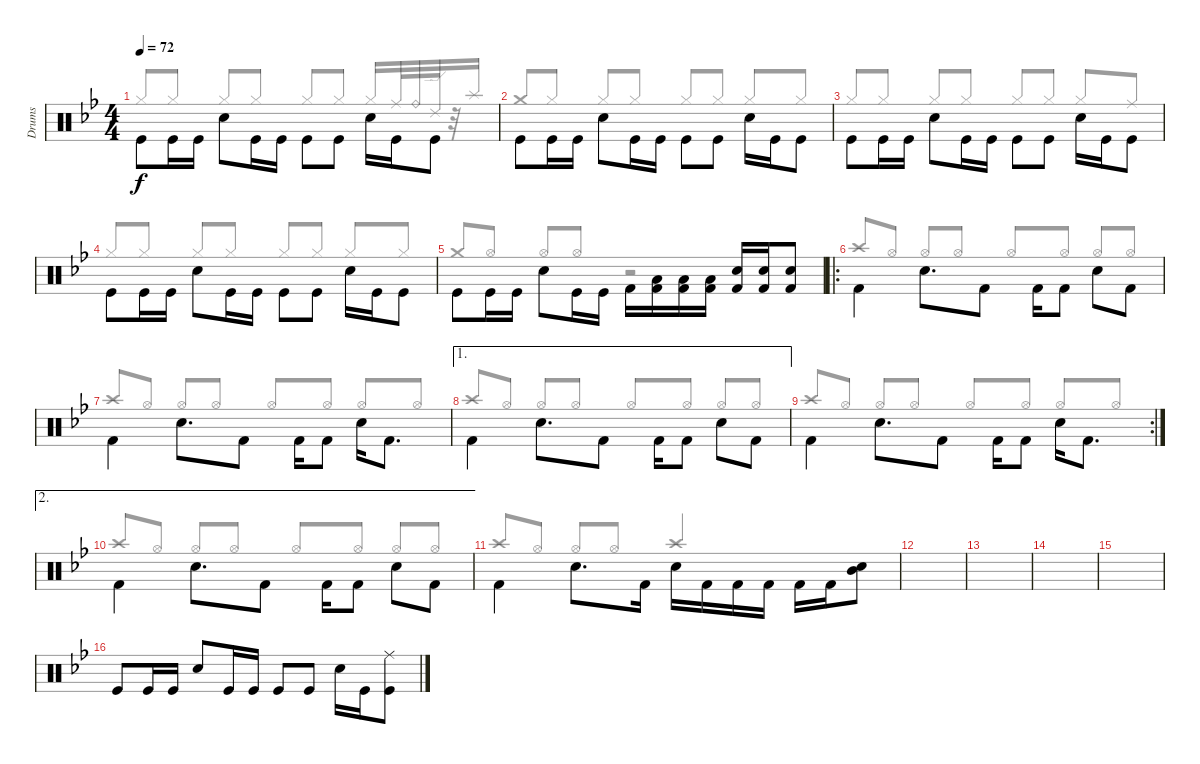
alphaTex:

\track ("Drums" "Drums") {instrument percussion}
\staff {score}
\articulation defaults
\voice
\ts (4 4)
\tempo 72
\clef neutral
\ks gminor "Kick (hit)".8{dy f beam Down} "Kick (hit)".16{beam Down} "Kick (hit)".16{beam Down} "Snare (hit) 2".8{beam Down} "Kick (hit)".16{beam Down} "Kick (hit)".16{beam Down} "Kick (hit)".8{beam Down} "Kick (hit)".8{beam Down} "Snare (hit) 2".16{beam Down} "Kick (hit)".16{beam Down} "Kick (hit)".8{beam Down}
|
"Kick (hit)".8{beam Down} "Kick (hit)".16{beam Down} "Kick (hit)".16{beam Down} "Snare (hit) 2".8{beam Down} "Kick (hit)".16{beam Down} "Kick (hit)".16{beam Down} "Kick (hit)".8{beam Down} "Kick (hit)".8{beam Down} "Snare (hit) 2".16{beam Down} "Kick (hit)".16{beam Down} "Kick (hit)".8{beam Down} |
"Kick (hit)".8{beam Down} "Kick (hit)".16{beam Down} "Kick (hit)".16{beam Down} "Snare (hit) 2".8{beam Down} "Kick (hit)".16{beam Down} "Kick (hit)".16{beam Down} "Kick (hit)".8{beam Down} "Kick (hit)".8{beam Down} "Snare (hit) 2".16{beam Down} "Kick (hit)".16{beam Down} "Kick (hit)".8{beam Down} |
"Kick (hit)".8{beam Down} "Kick (hit)".16{beam Down} "Kick (hit)".16{beam Down} "Snare (hit) 2".8{beam Down} "Kick (hit)".16{beam Down} "Kick (hit)".16{beam Down} "Kick (hit)".8{beam Down} "Kick (hit)".8{beam Down} "Snare (hit) 2".16{beam Down} "Kick (hit)".16{beam Down} "Kick (hit)".8{beam Down} |
"Kick (hit)".8{beam Down} "Kick (hit)".16{beam Down} "Kick (hit)".16{beam Down} "Snare (hit) 2".8{beam Down} "Kick (hit)".16{beam Down} "Kick (hit)".16{beam Down} "Kick (hit) 2".16{beam Down} ("Low Floor Tom (hit)" "Kick (hit) 2").16{beam Down} ("Low Tom (hit)" "Kick (hit) 2").16{beam Down} ("Low Tom (hit)" "Kick (hit) 2").16{beam Down} ("Snare (hit) 2" "Kick (hit) 2").16 ("Snare (hit) 2" "Kick (hit) 2").16 ("Snare (hit) 2" "Kick (hit) 2").8 |
\ro "Kick (hit) 2".4{beam Down} "Electric Snare (hit)".8{d beam Down} "Kick (hit) 2".8{beam Down} "Kick (hit) 2".16{beam Down} "Kick (hit) 2".8{beam Down} "Electric Snare (hit)".8{beam Down} "Kick (hit) 2".8{beam Down}
|
"Kick (hit) 2".4{beam Down} "Electric Snare (hit)".8{d beam Down} "Kick (hit) 2".8{beam Down} "Kick (hit) 2".16{beam Down} "Kick (hit) 2".8{beam Down} "Electric Snare (hit)".16{beam Down} "Kick (hit) 2".8{d beam Down} |
\ae 1 "Kick (hit) 2".4{beam Down} "Electric Snare (hit)".8{d beam Down} "Kick (hit) 2".8{beam Down} "Kick (hit) 2".16{beam Down} "Kick (hit) 2".8{beam Down} "Electric Snare (hit)".8{beam Down} "Kick (hit) 2".8{beam Down}
|
\rc 2 "Kick (hit) 2".4{beam Down} "Electric Snare (hit)".8{d beam Down} "Kick (hit) 2".8{beam Down} "Kick (hit) 2".16{beam Down} "Kick (hit) 2".8{beam Down} "Electric Snare (hit)".16{beam Down} "Kick (hit) 2".8{d beam Down}
|
\ae 2 "Kick (hit) 2".4{beam Down} "Electric Snare (hit)".8{d beam Down} "Kick (hit) 2".8{beam Down} "Kick (hit) 2".16{beam Down} "Kick (hit) 2".8{beam Down} "Electric Snare (hit)".8{beam Down} "Kick (hit) 2".8{beam Down}
|
"Kick (hit) 2".4{beam Down} "Electric Snare (hit)".8{d beam Down} "Kick (hit) 2".16{beam Down} "Electric Snare (hit)".16{beam Down} "Kick (hit) 2".16{beam Down} "Kick (hit) 2".16{beam Down} "Kick (hit) 2".16{beam Down} "Kick (hit) 2".16{beam Down} "Kick (hit) 2".16{beam Down} ("Electric Snare (hit)" "Mid Tom (hit)").8{beam Down} |
|
|
|
|
"Kick (hit)".8 "Kick (hit)".16 "Kick (hit)".16 "Snare (hit) 2".8 "Kick (hit)".16 "Kick (hit)".16 "Kick (hit)".8 "Kick (hit)".8 "Snare (hit) 2".16 "Kick (hit)".16 ("Ride (middle)" "Kick (hit)").8
\voice
\clef neutral
\ottava regular
\simile none
\ks gminor "Hi-Hat (closed)".8{dy f beam Up} "Hi-Hat (closed)".8{beam Up} "Hi-Hat (closed)".8{beam Up} "Hi-Hat (closed)".8{beam Up} "Hi-Hat (closed)".8{beam Up} "Hi-Hat (closed)".8{beam Up} "Hi-Hat (closed)".16{beam Up} "Ride (middle)".32{beam Up} "Ride (bell)".32{beam Up} "Ride (edge) 2".32{beam Up}
r.32 "Splash (hit)".16 |
"Crash medium (hit)".8{beam Up} "Hi-Hat (closed)".8{beam Up} "Hi-Hat (closed)".8{beam Up} "Hi-Hat (closed)".8{beam Up} "Hi-Hat (closed)".8{beam Up} "Hi-Hat (closed)".8{beam Up} "Hi-Hat (closed)".8{beam Up} "Hi-Hat (closed)".8{beam Up} |
"Hi-Hat (closed)".8{beam Up} "Hi-Hat (closed)".8{beam Up} "Hi-Hat (closed)".8{beam Up} "Hi-Hat (closed)".8{beam Up} "Hi-Hat (closed)".8{beam Up} "Hi-Hat (closed)".8{beam Up} "Hi-Hat (closed)".8{beam Up} "Ride (middle)".8{beam Up} |
"Hi-Hat (closed)".8{beam Up} "Hi-Hat (closed)".8{beam Up} "Hi-Hat (closed)".8{beam Up} "Hi-Hat (closed)".8{beam Up} "Hi-Hat (closed)".8{beam Up} "Hi-Hat (closed)".8{beam Up} "Hi-Hat (closed)".8{beam Up} "Hi-Hat (closed)".8{beam Up} |
"Crash medium (hit)".8{beam Up} "Hi-Hat (open)".8{beam Up} "Hi-Hat (open)".8{beam Up} "Hi-Hat (open)".8{beam Up} r.2 |
"Crash high (hit)".8{beam Up} "Hi-Hat (open)".8{beam Up} "Hi-Hat (open)".8{beam Up} "Hi-Hat (open)".8{beam Up} "Hi-Hat (open)".8{beam Up} "Hi-Hat (open)".8{beam Up} "Hi-Hat (open)".8{beam Up} "Hi-Hat (open)".8{beam Up} |
"Crash high (hit)".8{beam Up} "Hi-Hat (open)".8{beam Up} "Hi-Hat (open)".8{beam Up} "Hi-Hat (open)".8{beam Up} "Hi-Hat (open)".8{beam Up} "Hi-Hat (open)".8{beam Up} "Hi-Hat (open)".8{beam Up} "Hi-Hat (open)".8{beam Up} |
"Crash high (hit)".8{beam Up} "Hi-Hat (open)".8{beam Up} "Hi-Hat (open)".8{beam Up} "Hi-Hat (open)".8{beam Up} "Hi-Hat (open)".8{beam Up} "Hi-Hat (open)".8{beam Up} "Hi-Hat (open)".8{beam Up} "Hi-Hat (open)".8{beam Up} |
"Crash high (hit)".8{beam Up} "Hi-Hat (open)".8{beam Up} "Hi-Hat (open)".8{beam Up} "Hi-Hat (open)".8{beam Up} "Hi-Hat (open)".8{beam Up} "Hi-Hat (open)".8{beam Up} "Hi-Hat (open)".8{beam Up} "Hi-Hat (open)".8{beam Up} |
"Crash high (hit)".8{beam Up} "Hi-Hat (open)".8{beam Up} "Hi-Hat (open)".8{beam Up} "Hi-Hat (open)".8{beam Up} "Hi-Hat (open)".8{beam Up} "Hi-Hat (open)".8{beam Up} "Hi-Hat (open)".8{beam Up} "Hi-Hat (open)".8{beam Up} |
"Crash high (hit)".8{beam Up} "Hi-Hat (open)".8{beam Up} "Hi-Hat (open)".8{beam Up} "Hi-Hat (open)".8{beam Up} "Crash high (hit)".2{beam Up} |
|
|
|
|
